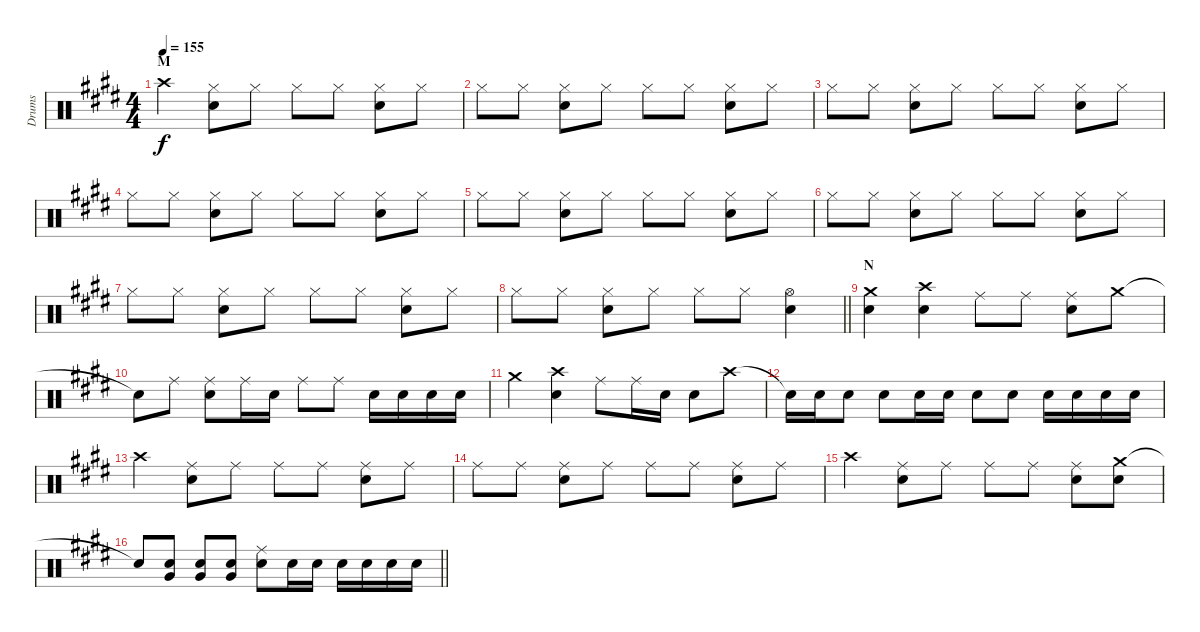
\track ("Drums" "Drums") {instrument percussion}
\staff {score}
\articulation defaults
\ts (4 4)
\section ("" "M")
\tempo 155
\clef neutral
\ks e "Crash high (hit)".4{dy f}
("Hi-Hat (closed)" "Snare (hit) 2").8 "Hi-Hat (closed)".8 "Hi-Hat (closed)".8 "Hi-Hat (closed)".8 ("Hi-Hat (closed)" "Snare (hit) 2").8 "Hi-Hat (closed)".8 |
"Hi-Hat (closed)".8 "Hi-Hat (closed)".8 ("Hi-Hat (closed)" "Snare (hit) 2").8 "Hi-Hat (closed)".8 "Hi-Hat (closed)".8 "Hi-Hat (closed)".8 ("Hi-Hat (closed)" "Snare (hit) 2").8 "Hi-Hat (closed)".8 |
"Hi-Hat (closed)".8 "Hi-Hat (closed)".8 ("Hi-Hat (closed)" "Snare (hit) 2").8 "Hi-Hat (closed)".8 "Hi-Hat (closed)".8 "Hi-Hat (closed)".8 ("Hi-Hat (closed)" "Snare (hit) 2").8 "Hi-Hat (closed)".8 |
"Hi-Hat (closed)".8 "Hi-Hat (closed)".8 ("Hi-Hat (closed)" "Snare (hit) 2").8 "Hi-Hat (closed)".8 "Hi-Hat (closed)".8 "Hi-Hat (closed)".8 ("Hi-Hat (closed)" "Snare (hit) 2").8 "Hi-Hat (closed)".8 |
"Hi-Hat (closed)".8 "Hi-Hat (closed)".8 ("Hi-Hat (closed)" "Snare (hit) 2").8 "Hi-Hat (closed)".8 "Hi-Hat (closed)".8 "Hi-Hat (closed)".8 ("Hi-Hat (closed)" "Snare (hit) 2").8 "Hi-Hat (closed)".8 |
"Hi-Hat (closed)".8 "Hi-Hat (closed)".8 ("Hi-Hat (closed)" "Snare (hit) 2").8 "Hi-Hat (closed)".8 "Hi-Hat (closed)".8 "Hi-Hat (closed)".8 ("Hi-Hat (closed)" "Snare (hit) 2").8 "Hi-Hat (closed)".8 |
"Hi-Hat (closed)".8 "Hi-Hat (closed)".8 ("Hi-Hat (closed)" "Snare (hit) 2").8 "Hi-Hat (closed)".8 "Hi-Hat (closed)".8 "Hi-Hat (closed)".8 ("Hi-Hat (closed)" "Snare (hit) 2").8 "Hi-Hat (closed)".8 |
\barLineRight lightlight "Hi-Hat (closed)".8 "Hi-Hat (closed)".8
("Hi-Hat (closed)" "Snare (hit) 2").8 "Hi-Hat (closed)".8 "Hi-Hat (closed)".8 "Hi-Hat (closed)".8 ("Hi-Hat (open)" "Snare (hit) 2").4 |
\section ("" "N")
("Crash medium (hit)" "Snare (hit) 2").4 ("Crash high (hit)" "Snare (hit) 2").4 "Ride (middle)".8 "Ride (middle)".8 ("Ride (middle)" "Snare (hit) 2").8 "Crash medium (hit)".8 |
"Snare (hit)"{t}.8 "Ride (middle)".8 ("Ride (middle)" "Snare (hit) 2").8 "Ride (middle)".16 "Snare (hit) 2".16 "Ride (middle)".8 "Ride (middle)".8 "Snare (hit) 2".16 "Snare (hit) 2".16 "Snare (hit) 2".16 "Snare (hit) 2".16 |
"Crash medium (hit)".4 ("Crash high (hit)" "Snare (hit) 2").4 "Ride (middle)".8 "Ride (middle)".16 "Snare (hit) 2".16 "Snare (hit) 2".8 "Crash high (hit)".8 |
"Snare (hit)"{t}.16 "Snare (hit) 2".16 "Snare (hit) 2".8 "Snare (hit) 2".8 "Snare (hit) 2".16 "Snare (hit) 2".16 "Snare (hit) 2".8 "Snare (hit) 2".8 "Snare (hit) 2".16 "Snare (hit) 2".16 "Snare (hit) 2".16 "Snare (hit) 2".16 |
"Crash high (hit)".4 ("Ride (middle)" "Snare (hit) 2").8 "Ride (middle)".8 "Ride (middle)".8 "Ride (middle)".8 ("Ride (middle)" "Snare (hit) 2").8 "Ride (middle)".8 |
"Ride (middle)".8 "Ride (middle)".8 ("Ride (middle)" "Snare (hit) 2").8 "Ride (middle)".8 "Ride (middle)".8 "Ride (middle)".8 ("Ride (middle)" "Snare (hit) 2").8 "Ride (middle)".8 |
"Crash high (hit)".4 ("Ride (middle)" "Snare (hit) 2").8 "Ride (middle)".8 "Ride (middle)".8 "Ride (middle)".8 ("Ride (middle)" "Snare (hit) 2").8 ("Crash medium (hit)" "Snare (hit) 2").8 |
\barLineRight lightlight "Snare (hit)"{t}.8
("Snare (hit) 2" "Very Low Tom (hit)").8 ("Snare (hit) 2" "Very Low Tom (hit)").8 ("Snare (hit) 2" "Very Low Tom (hit)").8 ("Ride (middle)" "Snare (hit) 2").8 "Snare (hit) 2".16 "Snare (hit) 2".16 "Snare (hit) 2".16 "Snare (hit) 2".16 "Snare (hit) 2".16 "Snare (hit) 2".16
